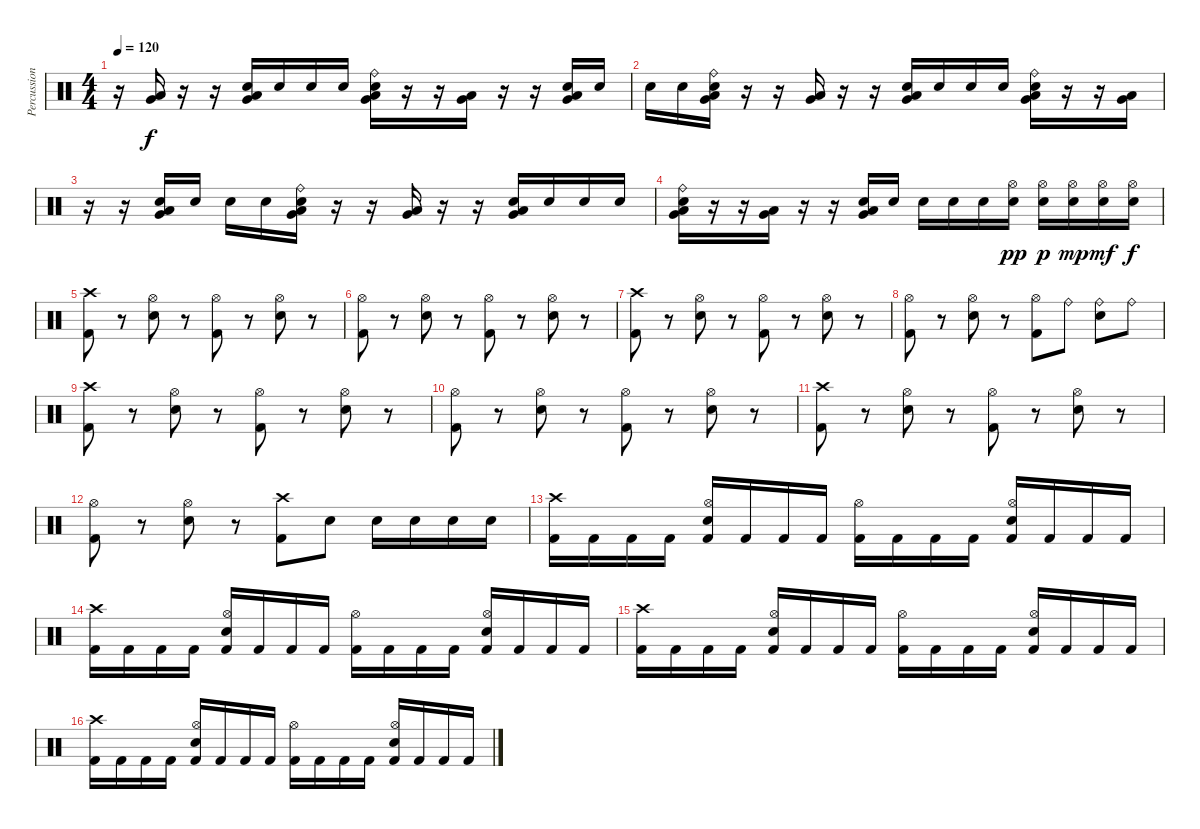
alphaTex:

\track ("Percussion" "Percussion") {instrument percussion}
\staff {score}
\articulation defaults
\ts (4 4)
\tempo 120
\clef neutral
\ks c
r.16{dy f} ("Very Low Tom (hit)" "Low Floor Tom (hit)").16 r.16 r.16 ("Very Low Tom (hit)" "Low Floor Tom (hit)" "Snare (hit) 2").16 "Snare (hit) 2".16 "Snare (hit) 2".16 "Snare (hit) 2".16 ("Ride (bell)" "Very Low Tom (hit)" "Low Floor Tom (hit)" "Snare (hit) 2").16 r.16 r.16 ("Very Low Tom (hit)" "Low Floor Tom (hit)").16 r.16 r.16 ("Very Low Tom (hit)" "Low Floor Tom (hit)" "Snare (hit) 2").16 "Snare (hit) 2".16 |
"Snare (hit) 2".16 "Snare (hit) 2".16 ("Ride (bell)" "Very Low Tom (hit)" "Low Floor Tom (hit)" "Snare (hit) 2").16 r.16 r.16 ("Very Low Tom (hit)" "Low Floor Tom (hit)").16 r.16 r.16 ("Very Low Tom (hit)" "Low Floor Tom (hit)" "Snare (hit) 2").16 "Snare (hit) 2".16 "Snare (hit) 2".16 "Snare (hit) 2".16 ("Ride (bell)" "Very Low Tom (hit)" "Low Floor Tom (hit)" "Snare (hit) 2").16 r.16 r.16 ("Very Low Tom (hit)" "Low Floor Tom (hit)").16 |
r.16 r.16 ("Very Low Tom (hit)" "Low Floor Tom (hit)" "Snare (hit) 2").16 "Snare (hit) 2".16 "Snare (hit) 2".16 "Snare (hit) 2".16 ("Ride (bell)" "Very Low Tom (hit)" "Low Floor Tom (hit)" "Snare (hit) 2").16 r.16 r.16 ("Very Low Tom (hit)" "Low Floor Tom (hit)").16 r.16 r.16 ("Very Low Tom (hit)" "Low Floor Tom (hit)" "Snare (hit) 2").16 "Snare (hit) 2".16 "Snare (hit) 2".16 "Snare (hit) 2".16 |
("Ride (bell)" "Very Low Tom (hit)" "Low Floor Tom (hit)" "Snare (hit) 2").16 r.16 r.16 ("Very Low Tom (hit)" "Low Floor Tom (hit)").16 r.16 r.16 ("Very Low Tom (hit)" "Low Floor Tom (hit)" "Snare (hit) 2").16 "Snare (hit) 2".16 "Snare (hit) 2".16 "Snare (hit) 2".16 "Snare (hit) 2".16 ("Hi-Hat (open)" "Snare (hit) 2").16{dy pp} ("Hi-Hat (open)" "Snare (hit) 2").16{dy p} ("Hi-Hat (open)" "Snare (hit) 2").16{dy mp} ("Hi-Hat (open)" "Snare (hit) 2").16{dy mf} ("Hi-Hat (open)" "Snare (hit) 2").16{dy f} |
("Crash high (hit)" "Kick (hit) 2").8 r.8 ("Hi-Hat (open)" "Snare (hit) 2").8 r.8 ("Hi-Hat (open)" "Kick (hit) 2").8 r.8 ("Hi-Hat (open)" "Snare (hit) 2").8 r.8 |
("Hi-Hat (open)" "Kick (hit) 2").8 r.8 ("Hi-Hat (open)" "Snare (hit) 2").8 r.8 ("Hi-Hat (open)" "Kick (hit) 2").8 r.8 ("Hi-Hat (open)" "Snare (hit) 2").8 r.8 |
("Crash high (hit)" "Kick (hit) 2").8 r.8 ("Hi-Hat (open)" "Snare (hit) 2").8 r.8 ("Hi-Hat (open)" "Kick (hit) 2").8 r.8 ("Hi-Hat (open)" "Snare (hit) 2").8 r.8 |
("Hi-Hat (open)" "Kick (hit) 2").8 r.8 ("Hi-Hat (open)" "Snare (hit) 2").8 r.8 ("Hi-Hat (open)" "Kick (hit) 2").8 "Ride (bell)".8 ("Ride (bell)" "Snare (hit) 2").8 "Ride (bell)".8 |
("Crash high (hit)" "Kick (hit) 2").8 r.8 ("Hi-Hat (open)" "Snare (hit) 2").8 r.8 ("Hi-Hat (open)" "Kick (hit) 2").8 r.8 ("Hi-Hat (open)" "Snare (hit) 2").8 r.8 |
("Hi-Hat (open)" "Kick (hit) 2").8 r.8 ("Hi-Hat (open)" "Snare (hit) 2").8 r.8 ("Hi-Hat (open)" "Kick (hit) 2").8 r.8 ("Hi-Hat (open)" "Snare (hit) 2").8 r.8 |
("Crash high (hit)" "Kick (hit) 2").8 r.8 ("Hi-Hat (open)" "Snare (hit) 2").8 r.8 ("Hi-Hat (open)" "Kick (hit) 2").8 r.8 ("Hi-Hat (open)" "Snare (hit) 2").8 r.8 |
("Hi-Hat (open)" "Kick (hit) 2").8 r.8 ("Hi-Hat (open)" "Snare (hit) 2").8 r.8 ("Crash high (hit)" "Kick (hit) 2").8 "Snare (hit) 2".8 "Snare (hit) 2".16 "Snare (hit) 2".16 "Snare (hit) 2".16 "Snare (hit) 2".16 |
("Crash high (hit)" "Kick (hit) 2").16 "Kick (hit) 2".16 "Kick (hit) 2".16 "Kick (hit) 2".16 ("Hi-Hat (open)" "Snare (hit) 2" "Kick (hit) 2").16 "Kick (hit) 2".16 "Kick (hit) 2".16 "Kick (hit) 2".16 ("Hi-Hat (open)" "Kick (hit) 2").16 "Kick (hit) 2".16 "Kick (hit) 2".16 "Kick (hit) 2".16 ("Hi-Hat (open)" "Snare (hit) 2" "Kick (hit) 2").16 "Kick (hit) 2".16 "Kick (hit) 2".16 "Kick (hit) 2".16 |
("Crash high (hit)" "Kick (hit) 2").16 "Kick (hit) 2".16 "Kick (hit) 2".16 "Kick (hit) 2".16 ("Hi-Hat (open)" "Snare (hit) 2" "Kick (hit) 2").16 "Kick (hit) 2".16 "Kick (hit) 2".16 "Kick (hit) 2".16 ("Hi-Hat (open)" "Kick (hit) 2").16 "Kick (hit) 2".16 "Kick (hit) 2".16 "Kick (hit) 2".16 ("Hi-Hat (open)" "Snare (hit) 2" "Kick (hit) 2").16 "Kick (hit) 2".16 "Kick (hit) 2".16 "Kick (hit) 2".16 |
("Crash high (hit)" "Kick (hit) 2").16 "Kick (hit) 2".16 "Kick (hit) 2".16 "Kick (hit) 2".16 ("Hi-Hat (open)" "Snare (hit) 2" "Kick (hit) 2").16 "Kick (hit) 2".16 "Kick (hit) 2".16 "Kick (hit) 2".16 ("Hi-Hat (open)" "Kick (hit) 2").16 "Kick (hit) 2".16 "Kick (hit) 2".16 "Kick (hit) 2".16 ("Hi-Hat (open)" "Snare (hit) 2" "Kick (hit) 2").16 "Kick (hit) 2".16 "Kick (hit) 2".16 "Kick (hit) 2".16 |
("Crash high (hit)" "Kick (hit) 2").16 "Kick (hit) 2".16 "Kick (hit) 2".16 "Kick (hit) 2".16 ("Hi-Hat (open)" "Snare (hit) 2" "Kick (hit) 2").16 "Kick (hit) 2".16 "Kick (hit) 2".16 "Kick (hit) 2".16 ("Hi-Hat (open)" "Kick (hit) 2").16 "Kick (hit) 2".16 "Kick (hit) 2".16 "Kick (hit) 2".16 ("Hi-Hat (open)" "Snare (hit) 2" "Kick (hit) 2").16 "Kick (hit) 2".16 "Kick (hit) 2".16 "Kick (hit) 2".16
